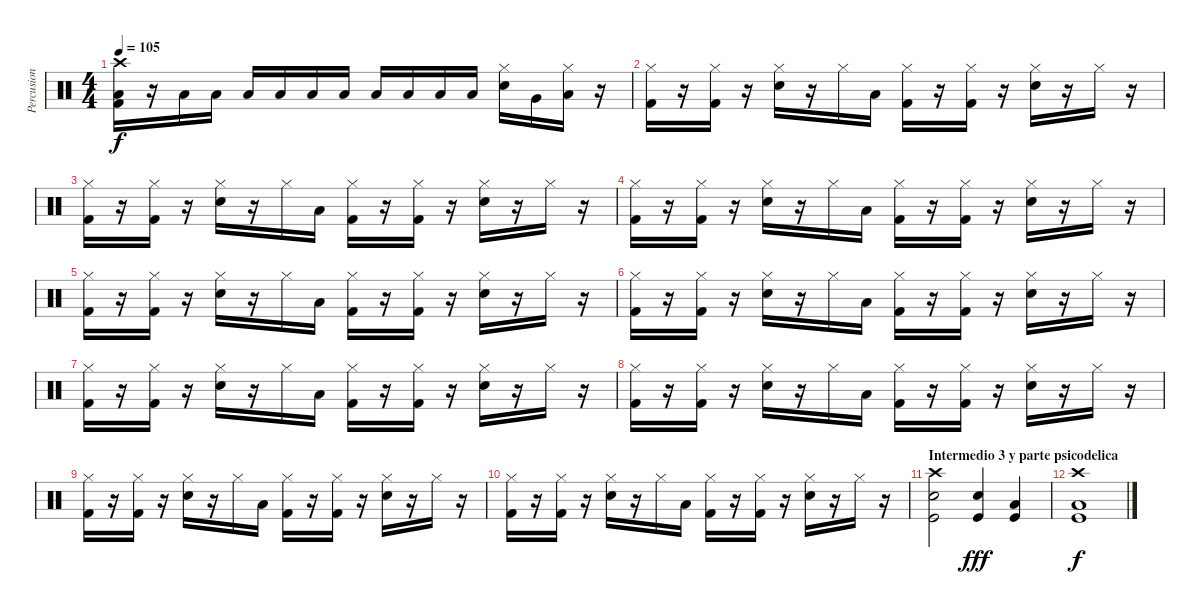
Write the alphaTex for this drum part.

\track ("Percusion" "Percusion") {instrument percussion}
\staff {score}
\articulation defaults
\ts (4 4)
\tempo 105
\clef neutral
\ks c
("Crash high (hit)" "Low Tom (hit)" "Kick (hit) 2").16{dy f} r.16 "Low Tom (hit)".16 "Low Tom (hit)".16 "Low Tom (hit)".16 "Low Tom (hit)".16 "Low Tom (hit)".16 "Low Tom (hit)".16 "Low Tom (hit)".16 "Low Tom (hit)".16 "Low Tom (hit)".16 "Low Tom (hit)".16 ("Hi-Hat (closed)" "Snare (hit) 2").16 "Very Low Tom (hit)".16 ("Hi-Hat (closed)" "Low Floor Tom (hit)").16 r.16 |
("Hi-Hat (closed)" "Kick (hit) 2").16 r.16 ("Hi-Hat (closed)" "Kick (hit) 2").16 r.16 ("Hi-Hat (closed)" "Snare (hit) 2").16 r.16 "Hi-Hat (closed)".16 "Low Floor Tom (hit)".16 ("Hi-Hat (closed)" "Kick (hit) 2").16 r.16 ("Hi-Hat (closed)" "Kick (hit) 2").16 r.16 ("Hi-Hat (closed)" "Snare (hit) 2").16 r.16 "Hi-Hat (closed)".16 r.16 |
("Hi-Hat (closed)" "Kick (hit) 2").16 r.16 ("Hi-Hat (closed)" "Kick (hit) 2").16 r.16 ("Hi-Hat (closed)" "Snare (hit) 2").16 r.16 "Hi-Hat (closed)".16 "Low Floor Tom (hit)".16 ("Hi-Hat (closed)" "Kick (hit) 2").16 r.16 ("Hi-Hat (closed)" "Kick (hit) 2").16 r.16 ("Hi-Hat (closed)" "Snare (hit) 2").16 r.16 "Hi-Hat (closed)".16 r.16 |
("Hi-Hat (closed)" "Kick (hit) 2").16 r.16 ("Hi-Hat (closed)" "Kick (hit) 2").16 r.16 ("Hi-Hat (closed)" "Snare (hit) 2").16 r.16 "Hi-Hat (closed)".16 "Low Floor Tom (hit)".16 ("Hi-Hat (closed)" "Kick (hit) 2").16 r.16 ("Hi-Hat (closed)" "Kick (hit) 2").16 r.16 ("Hi-Hat (closed)" "Snare (hit) 2").16 r.16 "Hi-Hat (closed)".16 r.16 |
("Hi-Hat (closed)" "Kick (hit) 2").16 r.16 ("Hi-Hat (closed)" "Kick (hit) 2").16 r.16 ("Hi-Hat (closed)" "Snare (hit) 2").16 r.16 "Hi-Hat (closed)".16 "Low Floor Tom (hit)".16 ("Hi-Hat (closed)" "Kick (hit) 2").16 r.16 ("Hi-Hat (closed)" "Kick (hit) 2").16 r.16 ("Hi-Hat (closed)" "Snare (hit) 2").16 r.16 "Hi-Hat (closed)".16 r.16 |
("Hi-Hat (closed)" "Kick (hit) 2").16 r.16 ("Hi-Hat (closed)" "Kick (hit) 2").16 r.16 ("Hi-Hat (closed)" "Snare (hit) 2").16 r.16 "Hi-Hat (closed)".16 "Low Floor Tom (hit)".16 ("Hi-Hat (closed)" "Kick (hit) 2").16 r.16 ("Hi-Hat (closed)" "Kick (hit) 2").16 r.16 ("Hi-Hat (closed)" "Snare (hit) 2").16 r.16 "Hi-Hat (closed)".16 r.16 |
("Hi-Hat (closed)" "Kick (hit) 2").16 r.16 ("Hi-Hat (closed)" "Kick (hit) 2").16 r.16 ("Hi-Hat (closed)" "Snare (hit) 2").16 r.16 "Hi-Hat (closed)".16 "Low Floor Tom (hit)".16 ("Hi-Hat (closed)" "Kick (hit) 2").16 r.16 ("Hi-Hat (closed)" "Kick (hit) 2").16 r.16 ("Hi-Hat (closed)" "Snare (hit) 2").16 r.16 "Hi-Hat (closed)".16 r.16 |
("Hi-Hat (closed)" "Kick (hit) 2").16 r.16 ("Hi-Hat (closed)" "Kick (hit) 2").16 r.16 ("Hi-Hat (closed)" "Snare (hit) 2").16 r.16 "Hi-Hat (closed)".16 "Low Floor Tom (hit)".16 ("Hi-Hat (closed)" "Kick (hit) 2").16 r.16 ("Hi-Hat (closed)" "Kick (hit) 2").16 r.16 ("Hi-Hat (closed)" "Snare (hit) 2").16 r.16 "Hi-Hat (closed)".16 r.16 |
("Hi-Hat (closed)" "Kick (hit) 2").16 r.16 ("Hi-Hat (closed)" "Kick (hit) 2").16 r.16 ("Hi-Hat (closed)" "Snare (hit) 2").16 r.16 "Hi-Hat (closed)".16 "Low Floor Tom (hit)".16 ("Hi-Hat (closed)" "Kick (hit) 2").16 r.16 ("Hi-Hat (closed)" "Kick (hit) 2").16 r.16 ("Hi-Hat (closed)" "Snare (hit) 2").16 r.16 "Hi-Hat (closed)".16 r.16 |
("Hi-Hat (closed)" "Kick (hit) 2").16 r.16 ("Hi-Hat (closed)" "Kick (hit) 2").16 r.16 ("Hi-Hat (closed)" "Snare (hit) 2").16 r.16 "Hi-Hat (closed)".16 "Low Floor Tom (hit)".16 ("Hi-Hat (closed)" "Kick (hit) 2").16 r.16 ("Hi-Hat (closed)" "Kick (hit) 2").16 r.16 ("Hi-Hat (closed)" "Snare (hit) 2").16 r.16 "Hi-Hat (closed)".16 r.16 |
\section ("" "Intermedio 3 y parte psicodelica")
("Crash high (hit)" "Kick (hit)" "Snare (hit) 2").2 ("Snare (hit) 2" "Kick (hit)").4{dy fff} ("Low Tom (hit)" "Kick (hit)").4 |
("Crash high (hit)" "Low Tom (hit)" "Kick (hit)").1{dy f}
